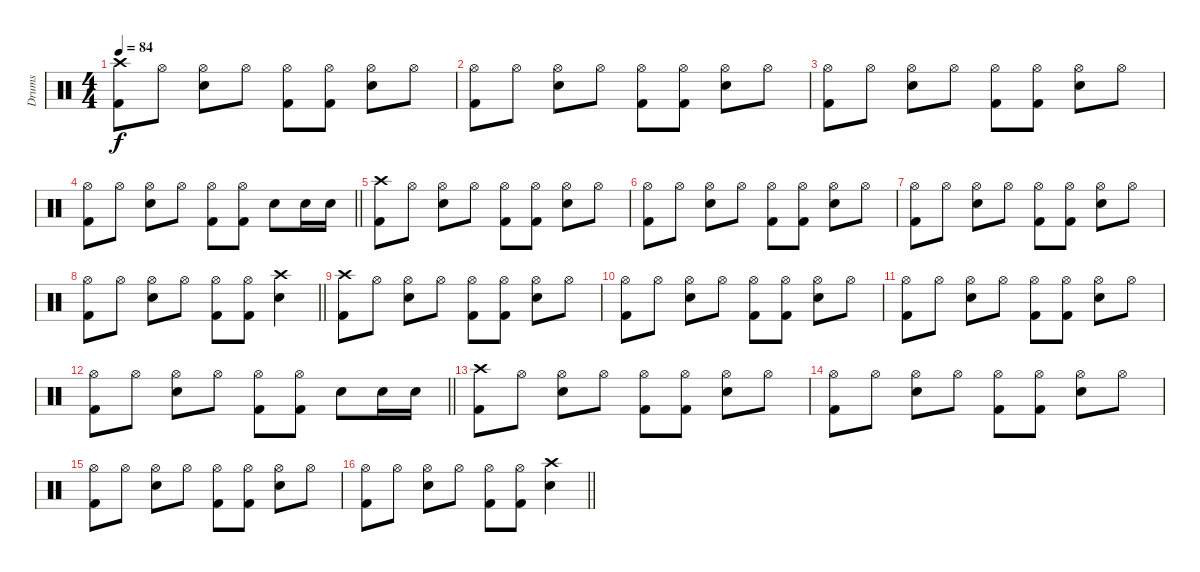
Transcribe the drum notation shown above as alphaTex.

\track ("Drums" "Drums") {instrument percussion}
\staff {score}
\articulation defaults
\ts (4 4)
\tempo 84
\clef neutral
\ks c
("Crash high (hit)" "Kick (hit) 2").8{dy f} "Hi-Hat (open)".8 ("Hi-Hat (open)" "Snare (hit) 2").8 "Hi-Hat (open)".8 ("Hi-Hat (open)" "Kick (hit) 2").8 ("Hi-Hat (open)" "Kick (hit) 2").8 ("Hi-Hat (open)" "Snare (hit) 2").8 "Hi-Hat (open)".8 |
("Hi-Hat (open)" "Kick (hit) 2").8 "Hi-Hat (open)".8 ("Hi-Hat (open)" "Snare (hit) 2").8 "Hi-Hat (open)".8 ("Hi-Hat (open)" "Kick (hit) 2").8 ("Hi-Hat (open)" "Kick (hit) 2").8 ("Hi-Hat (open)" "Snare (hit) 2").8 "Hi-Hat (open)".8 |
("Hi-Hat (open)" "Kick (hit) 2").8 "Hi-Hat (open)".8 ("Hi-Hat (open)" "Snare (hit) 2").8 "Hi-Hat (open)".8 ("Hi-Hat (open)" "Kick (hit) 2").8 ("Hi-Hat (open)" "Kick (hit) 2").8 ("Hi-Hat (open)" "Snare (hit) 2").8 "Hi-Hat (open)".8 |
\barLineRight lightlight
("Hi-Hat (open)" "Kick (hit) 2").8 "Hi-Hat (open)".8 ("Hi-Hat (open)" "Snare (hit) 2").8 "Hi-Hat (open)".8 ("Hi-Hat (open)" "Kick (hit) 2").8 ("Hi-Hat (open)" "Kick (hit) 2").8 "Snare (hit) 2".8 "Snare (hit) 2".16 "Snare (hit) 2".16 |
("Crash high (hit)" "Kick (hit) 2").8 "Hi-Hat (open)".8 ("Hi-Hat (open)" "Snare (hit) 2").8 "Hi-Hat (open)".8 ("Hi-Hat (open)" "Kick (hit) 2").8 ("Hi-Hat (open)" "Kick (hit) 2").8 ("Hi-Hat (open)" "Snare (hit) 2").8 "Hi-Hat (open)".8 |
("Hi-Hat (open)" "Kick (hit) 2").8 "Hi-Hat (open)".8 ("Hi-Hat (open)" "Snare (hit) 2").8 "Hi-Hat (open)".8 ("Hi-Hat (open)" "Kick (hit) 2").8 ("Hi-Hat (open)" "Kick (hit) 2").8 ("Hi-Hat (open)" "Snare (hit) 2").8 "Hi-Hat (open)".8 |
("Hi-Hat (open)" "Kick (hit) 2").8 "Hi-Hat (open)".8 ("Hi-Hat (open)" "Snare (hit) 2").8 "Hi-Hat (open)".8 ("Hi-Hat (open)" "Kick (hit) 2").8 ("Hi-Hat (open)" "Kick (hit) 2").8 ("Hi-Hat (open)" "Snare (hit) 2").8 "Hi-Hat (open)".8 |
\barLineRight lightlight
("Hi-Hat (open)" "Kick (hit) 2").8 "Hi-Hat (open)".8 ("Hi-Hat (open)" "Snare (hit) 2").8 "Hi-Hat (open)".8 ("Hi-Hat (open)" "Kick (hit) 2").8 ("Hi-Hat (open)" "Kick (hit) 2").8 ("Crash high (hit)" "Snare (hit) 2").4 |
("Crash high (hit)" "Kick (hit) 2").8 "Hi-Hat (open)".8 ("Hi-Hat (open)" "Snare (hit) 2").8 "Hi-Hat (open)".8 ("Hi-Hat (open)" "Kick (hit) 2").8 ("Hi-Hat (open)" "Kick (hit) 2").8 ("Hi-Hat (open)" "Snare (hit) 2").8 "Hi-Hat (open)".8 |
("Hi-Hat (open)" "Kick (hit) 2").8 "Hi-Hat (open)".8 ("Hi-Hat (open)" "Snare (hit) 2").8 "Hi-Hat (open)".8 ("Hi-Hat (open)" "Kick (hit) 2").8 ("Hi-Hat (open)" "Kick (hit) 2").8 ("Hi-Hat (open)" "Snare (hit) 2").8 "Hi-Hat (open)".8 |
("Hi-Hat (open)" "Kick (hit) 2").8 "Hi-Hat (open)".8 ("Hi-Hat (open)" "Snare (hit) 2").8 "Hi-Hat (open)".8 ("Hi-Hat (open)" "Kick (hit) 2").8 ("Hi-Hat (open)" "Kick (hit) 2").8 ("Hi-Hat (open)" "Snare (hit) 2").8 "Hi-Hat (open)".8 |
\barLineRight lightlight
("Hi-Hat (open)" "Kick (hit) 2").8 "Hi-Hat (open)".8 ("Hi-Hat (open)" "Snare (hit) 2").8 "Hi-Hat (open)".8 ("Hi-Hat (open)" "Kick (hit) 2").8 ("Hi-Hat (open)" "Kick (hit) 2").8 "Snare (hit) 2".8 "Snare (hit) 2".16 "Snare (hit) 2".16 |
("Crash high (hit)" "Kick (hit) 2").8 "Hi-Hat (open)".8 ("Hi-Hat (open)" "Snare (hit) 2").8 "Hi-Hat (open)".8 ("Hi-Hat (open)" "Kick (hit) 2").8 ("Hi-Hat (open)" "Kick (hit) 2").8 ("Hi-Hat (open)" "Snare (hit) 2").8 "Hi-Hat (open)".8 |
("Hi-Hat (open)" "Kick (hit) 2").8 "Hi-Hat (open)".8 ("Hi-Hat (open)" "Snare (hit) 2").8 "Hi-Hat (open)".8 ("Hi-Hat (open)" "Kick (hit) 2").8 ("Hi-Hat (open)" "Kick (hit) 2").8 ("Hi-Hat (open)" "Snare (hit) 2").8 "Hi-Hat (open)".8 |
("Hi-Hat (open)" "Kick (hit) 2").8 "Hi-Hat (open)".8 ("Hi-Hat (open)" "Snare (hit) 2").8 "Hi-Hat (open)".8 ("Hi-Hat (open)" "Kick (hit) 2").8 ("Hi-Hat (open)" "Kick (hit) 2").8 ("Hi-Hat (open)" "Snare (hit) 2").8 "Hi-Hat (open)".8 |
\barLineRight lightlight
("Hi-Hat (open)" "Kick (hit) 2").8 "Hi-Hat (open)".8 ("Hi-Hat (open)" "Snare (hit) 2").8 "Hi-Hat (open)".8 ("Hi-Hat (open)" "Kick (hit) 2").8 ("Hi-Hat (open)" "Kick (hit) 2").8 ("Crash high (hit)" "Snare (hit) 2").4
